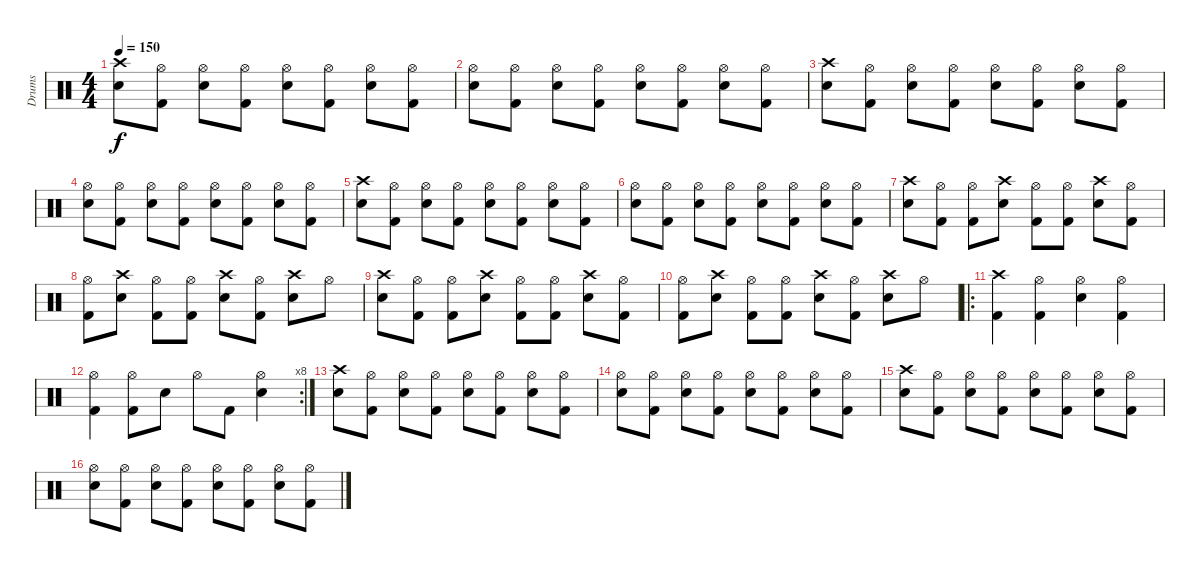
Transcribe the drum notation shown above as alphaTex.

\track ("Drums" "Drums") {instrument percussion}
\staff {score}
\articulation defaults
\ts (4 4)
\tempo 150
\clef neutral
\ks c
("Crash high (hit)" "Snare (hit) 2").8{dy f} ("Hi-Hat (open)" "Kick (hit) 2").8 ("Hi-Hat (open)" "Snare (hit) 2").8 ("Hi-Hat (open)" "Kick (hit) 2").8 ("Hi-Hat (open)" "Snare (hit) 2").8 ("Hi-Hat (open)" "Kick (hit) 2").8 ("Hi-Hat (open)" "Snare (hit) 2").8 ("Hi-Hat (open)" "Kick (hit) 2").8 |
("Hi-Hat (open)" "Snare (hit) 2").8 ("Hi-Hat (open)" "Kick (hit) 2").8 ("Hi-Hat (open)" "Snare (hit) 2").8 ("Hi-Hat (open)" "Kick (hit) 2").8 ("Hi-Hat (open)" "Snare (hit) 2").8 ("Hi-Hat (open)" "Kick (hit) 2").8 ("Hi-Hat (open)" "Snare (hit) 2").8 ("Hi-Hat (open)" "Kick (hit) 2").8 |
("Crash high (hit)" "Snare (hit) 2").8 ("Hi-Hat (open)" "Kick (hit) 2").8 ("Hi-Hat (open)" "Snare (hit) 2").8 ("Hi-Hat (open)" "Kick (hit) 2").8 ("Hi-Hat (open)" "Snare (hit) 2").8 ("Hi-Hat (open)" "Kick (hit) 2").8 ("Hi-Hat (open)" "Snare (hit) 2").8 ("Hi-Hat (open)" "Kick (hit) 2").8 |
("Hi-Hat (open)" "Snare (hit) 2").8 ("Hi-Hat (open)" "Kick (hit) 2").8 ("Hi-Hat (open)" "Snare (hit) 2").8 ("Hi-Hat (open)" "Kick (hit) 2").8 ("Hi-Hat (open)" "Snare (hit) 2").8 ("Hi-Hat (open)" "Kick (hit) 2").8 ("Hi-Hat (open)" "Snare (hit) 2").8 ("Hi-Hat (open)" "Kick (hit) 2").8 |
("Crash high (hit)" "Snare (hit) 2").8 ("Hi-Hat (open)" "Kick (hit) 2").8 ("Hi-Hat (open)" "Snare (hit) 2").8 ("Hi-Hat (open)" "Kick (hit) 2").8 ("Hi-Hat (open)" "Snare (hit) 2").8 ("Hi-Hat (open)" "Kick (hit) 2").8 ("Hi-Hat (open)" "Snare (hit) 2").8 ("Hi-Hat (open)" "Kick (hit) 2").8 |
("Hi-Hat (open)" "Snare (hit) 2").8 ("Hi-Hat (open)" "Kick (hit) 2").8 ("Hi-Hat (open)" "Snare (hit) 2").8 ("Hi-Hat (open)" "Kick (hit) 2").8 ("Hi-Hat (open)" "Snare (hit) 2").8 ("Hi-Hat (open)" "Kick (hit) 2").8 ("Hi-Hat (open)" "Snare (hit) 2").8 ("Hi-Hat (open)" "Kick (hit) 2").8 |
("Crash high (hit)" "Snare (hit) 2").8 ("Hi-Hat (open)" "Kick (hit) 2").8 ("Hi-Hat (open)" "Kick (hit) 2").8 ("Crash high (hit)" "Snare (hit) 2").8 ("Hi-Hat (open)" "Kick (hit) 2").8 ("Hi-Hat (open)" "Kick (hit) 2").8 ("Crash high (hit)" "Snare (hit) 2").8 ("Hi-Hat (open)" "Kick (hit) 2").8 |
("Hi-Hat (open)" "Kick (hit) 2").8 ("Crash high (hit)" "Snare (hit) 2").8 ("Hi-Hat (open)" "Kick (hit) 2").8 ("Hi-Hat (open)" "Kick (hit) 2").8 ("Crash high (hit)" "Snare (hit) 2").8 ("Hi-Hat (open)" "Kick (hit) 2").8 ("Crash high (hit)" "Snare (hit) 2").8 "Hi-Hat (open)".8 |
("Crash high (hit)" "Snare (hit) 2").8 ("Hi-Hat (open)" "Kick (hit) 2").8 ("Hi-Hat (open)" "Kick (hit) 2").8 ("Crash high (hit)" "Snare (hit) 2").8 ("Hi-Hat (open)" "Kick (hit) 2").8 ("Hi-Hat (open)" "Kick (hit) 2").8 ("Crash high (hit)" "Snare (hit) 2").8 ("Hi-Hat (open)" "Kick (hit) 2").8 |
("Hi-Hat (open)" "Kick (hit) 2").8 ("Crash high (hit)" "Snare (hit) 2").8 ("Hi-Hat (open)" "Kick (hit) 2").8 ("Hi-Hat (open)" "Kick (hit) 2").8 ("Crash high (hit)" "Snare (hit) 2").8 ("Hi-Hat (open)" "Kick (hit) 2").8 ("Crash high (hit)" "Snare (hit) 2").8 "Hi-Hat (open)".8 |
\ro
("Crash high (hit)" "Kick (hit) 2").4 ("Hi-Hat (open)" "Kick (hit) 2").4 ("Hi-Hat (open)" "Snare (hit) 2").4 ("Hi-Hat (open)" "Kick (hit) 2").4 |
\rc 8
("Hi-Hat (open)" "Kick (hit) 2").4 ("Hi-Hat (open)" "Kick (hit) 2").8 "Snare (hit) 2".8 "Hi-Hat (open)".8 "Kick (hit) 2".8 ("Hi-Hat (open)" "Snare (hit) 2").4 |
("Crash high (hit)" "Snare (hit) 2").8 ("Hi-Hat (open)" "Kick (hit) 2").8 ("Hi-Hat (open)" "Snare (hit) 2").8 ("Hi-Hat (open)" "Kick (hit) 2").8 ("Hi-Hat (open)" "Snare (hit) 2").8 ("Hi-Hat (open)" "Kick (hit) 2").8 ("Hi-Hat (open)" "Snare (hit) 2").8 ("Hi-Hat (open)" "Kick (hit) 2").8 |
("Hi-Hat (open)" "Snare (hit) 2").8 ("Hi-Hat (open)" "Kick (hit) 2").8 ("Hi-Hat (open)" "Snare (hit) 2").8 ("Hi-Hat (open)" "Kick (hit) 2").8 ("Hi-Hat (open)" "Snare (hit) 2").8 ("Hi-Hat (open)" "Kick (hit) 2").8 ("Hi-Hat (open)" "Snare (hit) 2").8 ("Hi-Hat (open)" "Kick (hit) 2").8 |
("Crash high (hit)" "Snare (hit) 2").8 ("Hi-Hat (open)" "Kick (hit) 2").8 ("Hi-Hat (open)" "Snare (hit) 2").8 ("Hi-Hat (open)" "Kick (hit) 2").8 ("Hi-Hat (open)" "Snare (hit) 2").8 ("Hi-Hat (open)" "Kick (hit) 2").8 ("Hi-Hat (open)" "Snare (hit) 2").8 ("Hi-Hat (open)" "Kick (hit) 2").8 |
("Hi-Hat (open)" "Snare (hit) 2").8 ("Hi-Hat (open)" "Kick (hit) 2").8 ("Hi-Hat (open)" "Snare (hit) 2").8 ("Hi-Hat (open)" "Kick (hit) 2").8 ("Hi-Hat (open)" "Snare (hit) 2").8 ("Hi-Hat (open)" "Kick (hit) 2").8 ("Hi-Hat (open)" "Snare (hit) 2").8 ("Hi-Hat (open)" "Kick (hit) 2").8
